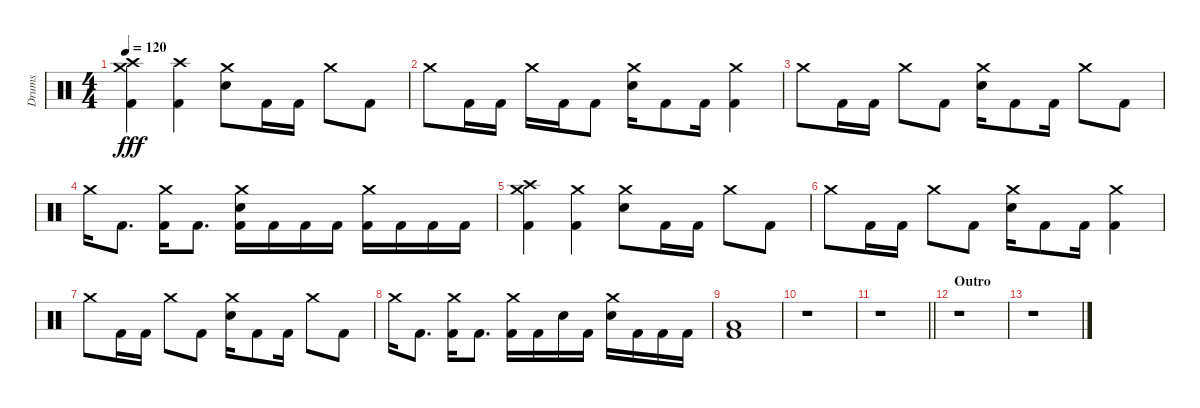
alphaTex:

\track ("Drums" "Drums") {instrument percussion}
\staff {score}
\articulation defaults
\ts (4 4)
\tempo 120
\clef neutral
\ks c
("Crash medium (hit)" "Crash high (hit)" "Kick (hit) 2").4{dy fff} ("Crash high (hit)" "Kick (hit) 2").4 ("Crash medium (hit)" "Electric Snare (hit)").8 "Kick (hit) 2".16 "Kick (hit) 2".16 "Crash medium (hit)".8 "Kick (hit) 2".8 |
"Crash medium (hit)".8 "Kick (hit) 2".16 "Kick (hit) 2".16 "Crash medium (hit)".16 "Kick (hit) 2".16 "Kick (hit) 2".8 ("Crash medium (hit)" "Electric Snare (hit)").16 "Kick (hit) 2".8 "Kick (hit) 2".16 ("Crash medium (hit)" "Kick (hit) 2").4 |
"Crash medium (hit)".8 "Kick (hit) 2".16 "Kick (hit) 2".16 "Crash medium (hit)".8 "Kick (hit) 2".8 ("Crash medium (hit)" "Electric Snare (hit)").16 "Kick (hit) 2".8 "Kick (hit) 2".16 "Crash medium (hit)".8 "Kick (hit) 2".8 |
"Crash medium (hit)".16 "Kick (hit) 2".8{d} ("Crash medium (hit)" "Kick (hit) 2").16 "Kick (hit) 2".8{d} ("Crash medium (hit)" "Electric Snare (hit)" "Kick (hit) 2").16 "Kick (hit) 2".16 "Kick (hit) 2".16 "Kick (hit) 2".16 ("Crash medium (hit)" "Kick (hit) 2").16 "Kick (hit) 2".16 "Kick (hit) 2".16 "Kick (hit) 2".16 |
("Crash medium (hit)" "Crash high (hit)" "Kick (hit) 2").4 ("Crash medium (hit)" "Kick (hit) 2").4 ("Crash medium (hit)" "Electric Snare (hit)").8 "Kick (hit) 2".16 "Kick (hit) 2".16 "Crash medium (hit)".8 "Kick (hit) 2".8 |
"Crash medium (hit)".8 "Kick (hit) 2".16 "Kick (hit) 2".16 "Crash medium (hit)".8 "Kick (hit) 2".8 ("Crash medium (hit)" "Electric Snare (hit)").16 "Kick (hit) 2".8 "Kick (hit) 2".16 ("Crash medium (hit)" "Kick (hit) 2").4 |
"Crash medium (hit)".8 "Kick (hit) 2".16 "Kick (hit) 2".16 "Crash medium (hit)".8 "Kick (hit) 2".8 ("Crash medium (hit)" "Electric Snare (hit)").16 "Kick (hit) 2".8 "Kick (hit) 2".16 "Crash medium (hit)".8 "Kick (hit) 2".8 |
"Crash medium (hit)".16 "Kick (hit) 2".8{d} ("Crash medium (hit)" "Kick (hit) 2").16 "Kick (hit) 2".8{d} ("Crash medium (hit)" "Kick (hit) 2").16 "Kick (hit) 2".16 "Electric Snare (hit)".16 "Kick (hit) 2".16 ("Crash medium (hit)" "Electric Snare (hit)").16 "Kick (hit) 2".16 "Kick (hit) 2".16 "Kick (hit) 2".16 |
("Low Floor Tom (hit)" "Kick (hit) 2").1 |
r.1 |
\barLineRight lightlight
r.1 |
\section ("" "Outro")
r.1 |
r.1
